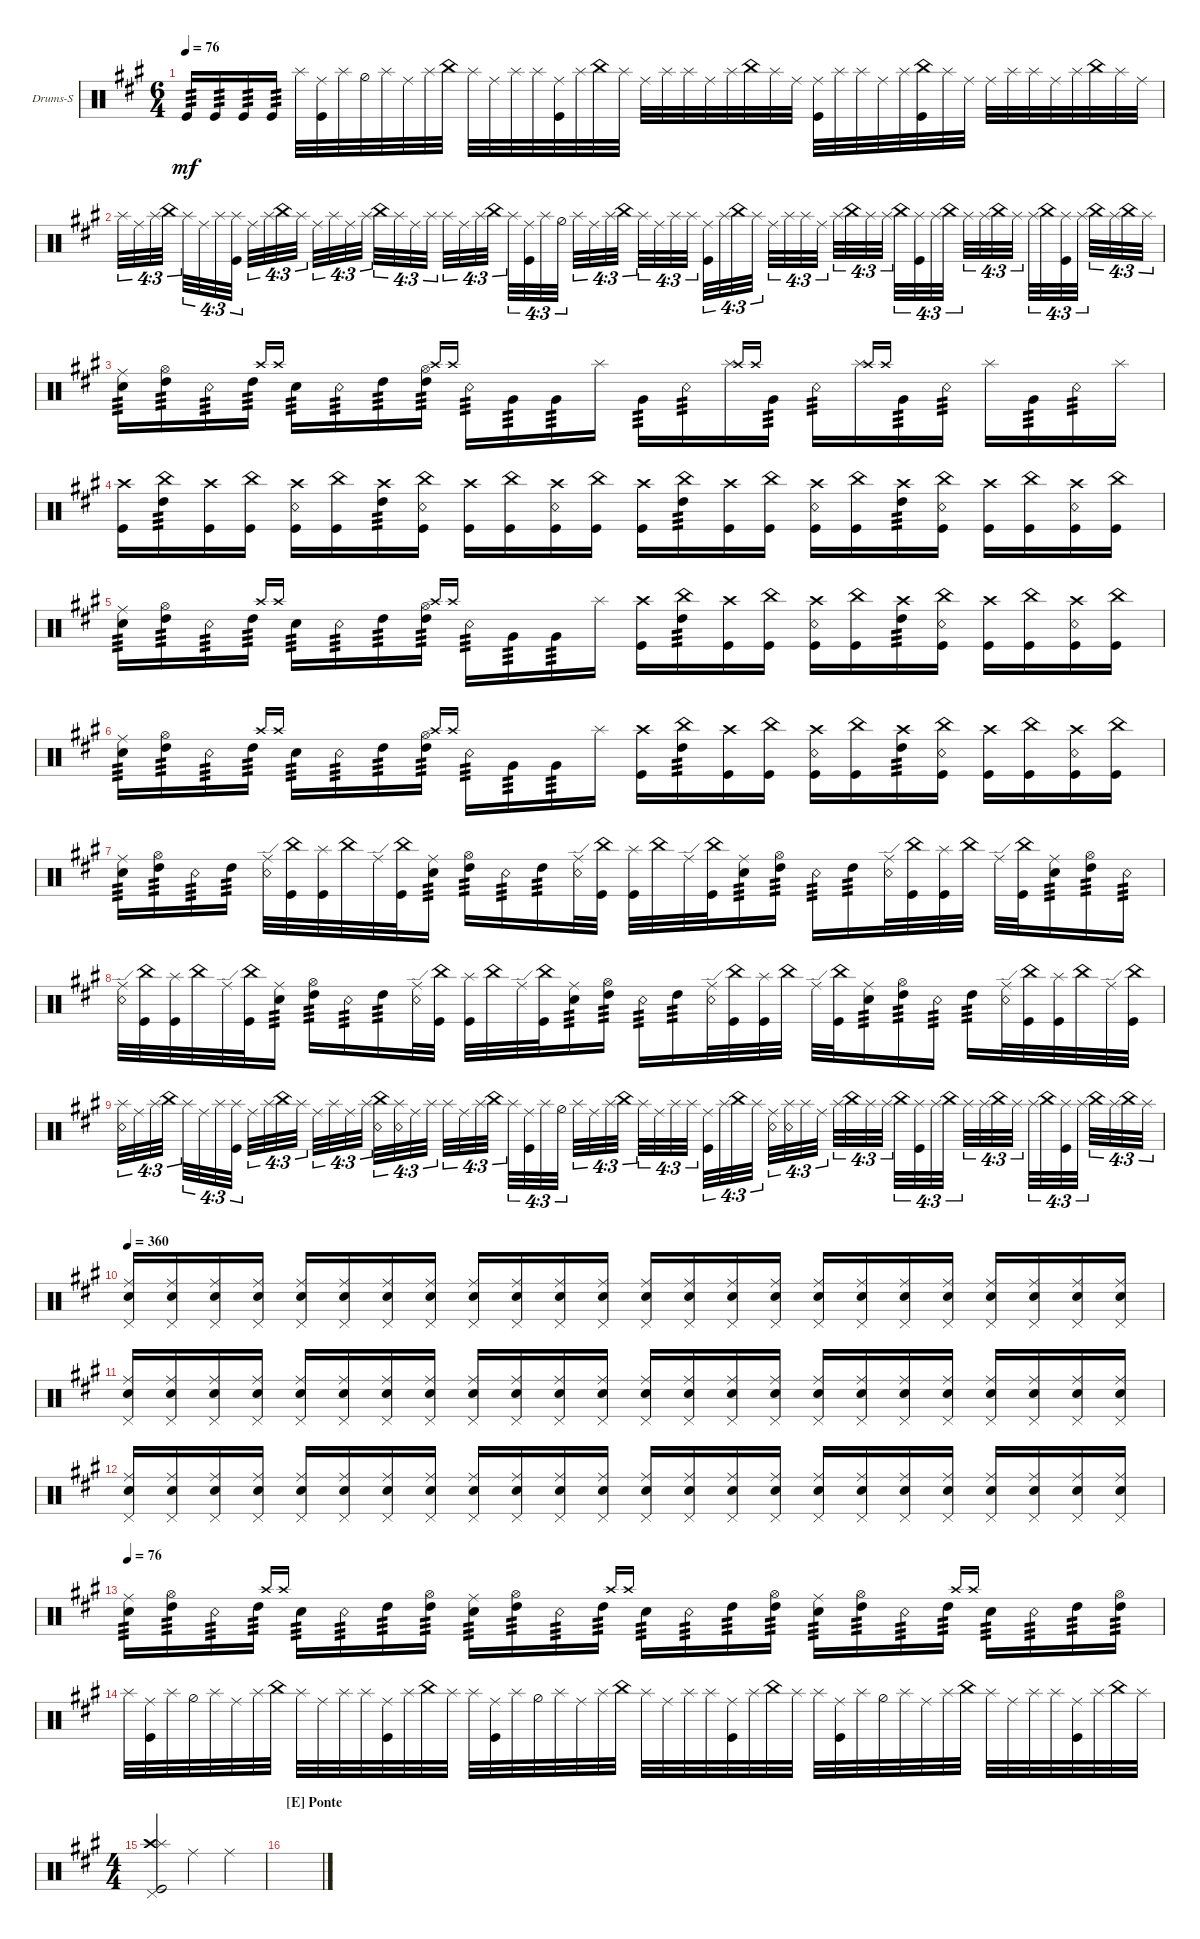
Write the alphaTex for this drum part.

\defaultSystemsLayout 4
\bracketExtendMode groupsimilarinstruments
\firstSystemTrackNameOrientation horizontal
\otherSystemsTrackNameOrientation horizontal
\track ("Drums-Solo" "Drums-S") {instrument percussion}
\staff {score}
\articulation defaults
\ts (6 4)
\tempo 76
\clef neutral
\ks a "Kick (hit)".16{tp 3 dy mf} "Kick (hit)".16{tp 3} "Kick (hit)".16{tp 3} "Kick (hit)".16{tp 3} "Splash (hit)".32
("Ride (middle)" "Kick (hit)").32 "Splash (hit)".32 "Hi-Hat (half)".32 "Splash (hit)".32 "Ride (middle)".32 "Splash (hit)".32 "China (hit)".32 "Splash (hit)".32 "Ride (middle)".32 "Splash (hit)".32 "Splash (hit)".32 ("Ride (middle)" "Kick (hit)").32 "Splash (hit)".32 "China (hit)".32 "Splash (hit)".32 "Ride (middle)".32 "Splash (hit)".32 "Splash (hit)".32 "Ride (middle)".32 "Splash (hit)".32 "China (hit)".32 "Splash (hit)".32 "Ride (middle)".32 ("Ride (middle)" "Kick (hit)").32 "Splash (hit)".32 "Splash (hit)".32 "Ride (middle)".32 "Splash (hit)".32 ("China (hit)" "Kick (hit)").32 "Splash (hit)".32 "Ride (middle)".32 "Ride (middle)".32 "Splash (hit)".32 "Splash (hit)".32 "Ride (middle)".32 "Splash (hit)".32 "China (hit)".32 "Splash (hit)".32 "Ride (middle)".32 |
"Splash (hit)".32{tu (4 3)} "Ride (middle)".32{tu (4 3)} "Splash (hit)".32{tu (4 3)} "China (hit)".32{tu (4 3)} "Splash (hit)".32{tu (4 3)} "Ride (middle)".32{tu (4 3)} "Splash (hit)".32{tu (4 3)} ("Splash (hit)" "Kick (hit)").32{tu (4 3)} "Ride (middle)".32{tu (4 3)} "Splash (hit)".32{tu (4 3)} "China (hit)".32{tu (4 3)} "Splash (hit)".32{tu (4 3)} "Ride (middle)".32{tu (4 3)} "Splash (hit)".32{tu (4 3)} "Ride (middle)".32{tu (4 3)} "Splash (hit)".32{tu (4 3)} "China (hit)".32{tu (4 3)} "Splash (hit)".32{tu (4 3)} "Ride (middle)".32{tu (4 3)} "Splash (hit)".32{tu (4 3)} "Splash (hit)".32{tu (4 3)} "Ride (middle)".32{tu (4 3)} "Splash (hit)".32{tu (4 3)} "China (hit)".32{tu (4 3)} "Splash (hit)".32{tu (4 3)} ("Ride (middle)" "Kick (hit)").32{tu (4 3)} "Splash (hit)".32{tu (4 3)} "Hi-Hat (half)".32{tu (4 3)} "Splash (hit)".32{tu (4 3)} "Ride (middle)".32{tu (4 3)} "Splash (hit)".32{tu (4 3)} "China (hit)".32{tu (4 3)} "Splash (hit)".32{tu (4 3)} "Ride (middle)".32{tu (4 3)} "Splash (hit)".32{tu (4 3)} "Splash (hit)".32{tu (4 3)} ("Ride (middle)" "Kick (hit)").32{tu (4 3)} "Splash (hit)".32{tu (4 3)} "China (hit)".32{tu (4 3)} "Splash (hit)".32{tu (4 3)} "Ride (middle)".32{tu (4 3)} "Splash (hit)".32{tu (4 3)} "Splash (hit)".32{tu (4 3)} "Ride (middle)".32{tu (4 3)} "Splash (hit)".32{tu (4 3)} "China (hit)".32{tu (4 3)} "Splash (hit)".32{tu (4 3)} "Splash (hit)".32{tu (4 3)} "China (hit)".32{tu (4 3)} ("Splash (hit)" "Kick (hit)").32{tu (4 3)} "Splash (hit)".32{tu (4 3)} "China (hit)".32{tu (4 3)} "Splash (hit)".32{tu (4 3)} "Splash (hit)".32{tu (4 3)} "China (hit)".32{tu (4 3)} "Splash (hit)".32{tu (4 3)} "Splash (hit)".32{tu (4 3)} "China (hit)".32{tu (4 3)} ("Splash (hit)" "Kick (hit)").32{tu (4 3)} "Splash (hit)".32{tu (4 3)} "China (hit)".32{tu (4 3)} "Splash (hit)".32{tu (4 3)} "China (hit)".32{tu (4 3)} "Splash (hit)".32{tu (4 3)} |
("Snare (hit) 2" "Ride (middle)").16{tp 3} ("High Tom (hit)" "Hi-Hat (open)").16{tp 3} "Snare (rim shot)".16{tp 3} "High Tom (hit)".16{tp 3} "Crash high (hit)".16{gr onbeat} "Crash high (hit)".16{gr onbeat} "Snare (hit) 2".16{tp 3} "Snare (rim shot)".16{tp 3} "High Tom (hit)".16{tp 3} ("High Tom (hit)" "Hi-Hat (open)").16{tp 3} "Crash high (hit)".16{gr onbeat} "Crash high (hit)".16{gr onbeat} "Snare (rim shot)".16{tp 3} "Very Low Tom (hit)".16{tp 3} "Very Low Tom (hit)".16{tp 3} "Splash (hit)".16 "Very Low Tom (hit)".16{tp 3} "Snare (rim shot)".16{tp 3} "Splash (hit)".16 "Crash high (hit)".16{gr onbeat} "Crash high (hit)".16{gr onbeat} "Very Low Tom (hit)".16{tp 3} "Snare (rim shot)".16{tp 3} "Splash (hit)".16 "Crash high (hit)".16{gr onbeat} "Crash high (hit)".16{gr onbeat} "Very Low Tom (hit)".16{tp 3} "Snare (rim shot)".16{tp 3} "Splash (hit)".16 "Very Low Tom (hit)".16{tp 3} "Snare (rim shot)".16{tp 3} "Splash (hit)".16 |
("Kick (hit)" "Crash high (hit)").16 ("China (hit)" "High Tom (hit)").16{tp 3} ("Kick (hit)" "Crash high (hit)").16 ("Kick (hit)" "China (hit)").16 ("Kick (hit)" "Crash high (hit)" "Snare (rim shot)").16 ("Kick (hit)" "China (hit)").16 ("Crash high (hit)" "High Tom (hit)").16{tp 3} ("Kick (hit)" "China (hit)" "Snare (rim shot)").16 ("Kick (hit)" "Crash high (hit)").16 ("Kick (hit)" "China (hit)").16 ("Kick (hit)" "Crash high (hit)" "Snare (rim shot)").16 ("Kick (hit)" "China (hit)").16 ("Kick (hit)" "Crash high (hit)").16 ("China (hit)" "High Tom (hit)").16{tp 3} ("Kick (hit)" "Crash high (hit)").16 ("Kick (hit)" "China (hit)").16 ("Kick (hit)" "Crash high (hit)" "Snare (rim shot)").16 ("Kick (hit)" "China (hit)").16 ("Crash high (hit)" "High Tom (hit)").16{tp 3} ("Kick (hit)" "China (hit)" "Snare (rim shot)").16 ("Kick (hit)" "Crash high (hit)").16 ("Kick (hit)" "China (hit)").16 ("Kick (hit)" "Crash high (hit)" "Snare (rim shot)").16 ("Kick (hit)" "China (hit)").16 |
("Snare (hit) 2" "Ride (middle)").16{tp 3} ("High Tom (hit)" "Hi-Hat (open)").16{tp 3} "Snare (rim shot)".16{tp 3} "High Tom (hit)".16{tp 3} "Crash high (hit)".16{gr onbeat} "Crash high (hit)".16{gr onbeat} "Snare (hit) 2".16{tp 3} "Snare (rim shot)".16{tp 3} "High Tom (hit)".16{tp 3} ("High Tom (hit)" "Hi-Hat (open)").16{tp 3} "Crash high (hit)".16{gr onbeat} "Crash high (hit)".16{gr onbeat} "Snare (rim shot)".16{tp 3} "Very Low Tom (hit)".16{tp 3} "Very Low Tom (hit)".16{tp 3} "Splash (hit)".16 ("Kick (hit)" "Crash high (hit)").16 ("China (hit)" "High Tom (hit)").16{tp 3} ("Kick (hit)" "Crash high (hit)").16 ("Kick (hit)" "China (hit)").16 ("Kick (hit)" "Crash high (hit)" "Snare (rim shot)").16 ("Kick (hit)" "China (hit)").16 ("Crash high (hit)" "High Tom (hit)").16{tp 3} ("Kick (hit)" "China (hit)" "Snare (rim shot)").16 ("Kick (hit)" "Crash high (hit)").16 ("Kick (hit)" "China (hit)").16 ("Kick (hit)" "Crash high (hit)" "Snare (rim shot)").16 ("Kick (hit)" "China (hit)").16 |
("Snare (hit) 2" "Ride (middle)").16{tp 3} ("High Tom (hit)" "Hi-Hat (open)").16{tp 3} "Snare (rim shot)".16{tp 3} "High Tom (hit)".16{tp 3} "Crash high (hit)".16{gr onbeat} "Crash high (hit)".16{gr onbeat} "Snare (hit) 2".16{tp 3} "Snare (rim shot)".16{tp 3} "High Tom (hit)".16{tp 3} ("High Tom (hit)" "Hi-Hat (open)").16{tp 3} "Crash high (hit)".16{gr onbeat} "Crash high (hit)".16{gr onbeat} "Snare (rim shot)".16{tp 3} "Very Low Tom (hit)".16{tp 3} "Very Low Tom (hit)".16{tp 3} "Splash (hit)".16 ("Kick (hit)" "Crash high (hit)").16 ("China (hit)" "High Tom (hit)").16{tp 3} ("Kick (hit)" "Crash high (hit)").16 ("Kick (hit)" "China (hit)").16 ("Kick (hit)" "Crash high (hit)" "Snare (rim shot)").16 ("Kick (hit)" "China (hit)").16 ("Crash high (hit)" "High Tom (hit)").16{tp 3} ("Kick (hit)" "China (hit)" "Snare (rim shot)").16 ("Kick (hit)" "Crash high (hit)").16 ("Kick (hit)" "China (hit)").16 ("Kick (hit)" "Crash high (hit)" "Snare (rim shot)").16 ("Kick (hit)" "China (hit)").16 |
("Snare (hit) 2" "Ride (middle)").16{tp 3} ("High Tom (hit)" "Hi-Hat (open)").16{tp 3} "Snare (rim shot)".16{tp 3} "High Tom (hit)".16{tp 3} ("Ride (edge)" "Snare (rim shot)").32 ("Kick (hit)" "China (hit)").32 ("Kick (hit)" "Splash (hit)").32 "China (hit)".32 "Ride (edge)".32 ("Kick (hit)" "China (hit)").32 ("Snare (hit) 2" "Ride (middle)").16{tp 3} ("High Tom (hit)" "Hi-Hat (open)").16{tp 3} "Snare (rim shot)".16{tp 3} "High Tom (hit)".16{tp 3} ("Ride (edge)" "Snare (rim shot)").32 ("Kick (hit)" "China (hit)").32 ("Kick (hit)" "Splash (hit)").32 "China (hit)".32 "Ride (edge)".32 ("Kick (hit)" "China (hit)").32 ("Snare (hit) 2" "Ride (middle)").16{tp 3} ("High Tom (hit)" "Hi-Hat (open)").16{tp 3} "Snare (rim shot)".16{tp 3} "High Tom (hit)".16{tp 3} ("Ride (edge)" "Snare (rim shot)").32 ("Kick (hit)" "China (hit)").32 ("Kick (hit)" "Splash (hit)").32 "China (hit)".32 "Ride (edge)".32 ("Kick (hit)" "China (hit)").32 ("Snare (hit) 2" "Ride (middle)").16{tp 3} ("High Tom (hit)" "Hi-Hat (open)").16{tp 3} "Snare (rim shot)".16{tp 3} |
("Ride (edge)" "Snare (rim shot)").32 ("Kick (hit)" "China (hit)").32 ("Kick (hit)" "Splash (hit)").32 "China (hit)".32 "Ride (edge)".32 ("Kick (hit)" "China (hit)").32 ("Snare (hit) 2" "Ride (middle)").16{tp 3} ("High Tom (hit)" "Hi-Hat (open)").16{tp 3} "Snare (rim shot)".16{tp 3} "High Tom (hit)".16{tp 3} ("Ride (edge)" "Snare (rim shot)").32 ("Kick (hit)" "China (hit)").32 ("Kick (hit)" "Splash (hit)").32 "China (hit)".32 "Ride (edge)".32 ("Kick (hit)" "China (hit)").32 ("Snare (hit) 2" "Ride (middle)").16{tp 3} ("High Tom (hit)" "Hi-Hat (open)").16{tp 3} "Snare (rim shot)".16{tp 3} "High Tom (hit)".16{tp 3} ("Ride (edge)" "Snare (rim shot)").32 ("Kick (hit)" "China (hit)").32 ("Kick (hit)" "Splash (hit)").32 "China (hit)".32 "Ride (edge)".32 ("Kick (hit)" "China (hit)").32 ("Snare (hit) 2" "Ride (middle)").16{tp 3} ("High Tom (hit)" "Hi-Hat (open)").16{tp 3} "Snare (rim shot)".16{tp 3} "High Tom (hit)".16{tp 3} ("Ride (edge)" "Snare (rim shot)").32 ("Kick (hit)" "China (hit)").32 ("Kick (hit)" "Splash (hit)").32 "China (hit)".32 "Ride (edge)".32 ("Kick (hit)" "China (hit)").32 |
("Splash (hit)" "Snare (rim shot)").32{tu (4 3)} "Ride (middle)".32{tu (4 3)} "Splash (hit)".32{tu (4 3)} "China (hit)".32{tu (4 3)} "Splash (hit)".32{tu (4 3)} "Ride (middle)".32{tu (4 3)} "Splash (hit)".32{tu (4 3)} ("Splash (hit)" "Kick (hit)").32{tu (4 3)} "Ride (middle)".32{tu (4 3)} "Splash (hit)".32{tu (4 3)} "China (hit)".32{tu (4 3)} "Splash (hit)".32{tu (4 3)} "Ride (middle)".32{tu (4 3)} "Splash (hit)".32{tu (4 3)} "Ride (middle)".32{tu (4 3)} "Splash (hit)".32{tu (4 3)} ("China (hit)" "Snare (rim shot)").32{tu (4 3)} ("Splash (hit)" "Snare (rim shot)").32{tu (4 3)} "Ride (middle)".32{tu (4 3)} "Splash (hit)".32{tu (4 3)} "Splash (hit)".32{tu (4 3)} "Ride (middle)".32{tu (4 3)} "Splash (hit)".32{tu (4 3)} "China (hit)".32{tu (4 3)} "Splash (hit)".32{tu (4 3)} ("Ride (middle)" "Kick (hit)").32{tu (4 3)} "Splash (hit)".32{tu (4 3)} "Hi-Hat (half)".32{tu (4 3)} "Splash (hit)".32{tu (4 3)} "Ride (middle)".32{tu (4 3)} "Splash (hit)".32{tu (4 3)} "China (hit)".32{tu (4 3)} "Splash (hit)".32{tu (4 3)} "Ride (middle)".32{tu (4 3)} "Splash (hit)".32{tu (4 3)} "Splash (hit)".32{tu (4 3)} ("Ride (middle)" "Kick (hit)").32{tu (4 3)} "Splash (hit)".32{tu (4 3)} "China (hit)".32{tu (4 3)} "Splash (hit)".32{tu (4 3)} ("Ride (middle)" "Snare (rim shot)").32{tu (4 3)} ("Splash (hit)" "Snare (rim shot)").32{tu (4 3)} "Splash (hit)".32{tu (4 3)} "Ride (middle)".32{tu (4 3)} "Splash (hit)".32{tu (4 3)} "China (hit)".32{tu (4 3)} "Splash (hit)".32{tu (4 3)} "Splash (hit)".32{tu (4 3)} "China (hit)".32{tu (4 3)} ("Splash (hit)" "Kick (hit)").32{tu (4 3)} "Splash (hit)".32{tu (4 3)} "China (hit)".32{tu (4 3)} "Splash (hit)".32{tu (4 3)} "Splash (hit)".32{tu (4 3)} "China (hit)".32{tu (4 3)} "Splash (hit)".32{tu (4 3)} "Splash (hit)".32{tu (4 3)} "China (hit)".32{tu (4 3)} ("Splash (hit)" "Kick (hit)").32{tu (4 3)} "Splash (hit)".32{tu (4 3)} "China (hit)".32{tu (4 3)} "Splash (hit)".32{tu (4 3)} "China (hit)".32{tu (4 3)} "Splash (hit)".32{tu (4 3)} |
\tempo 360
("Snare (hit) 2" "Pedal Hi-Hat (hit)" "Ride (middle)").16 ("Snare (hit) 2" "Pedal Hi-Hat (hit)" "Ride (middle)").16 ("Snare (hit) 2" "Pedal Hi-Hat (hit)" "Ride (middle)").16 ("Snare (hit) 2" "Pedal Hi-Hat (hit)" "Ride (middle)").16 ("Snare (hit) 2" "Pedal Hi-Hat (hit)" "Ride (middle)").16 ("Snare (hit) 2" "Pedal Hi-Hat (hit)" "Ride (middle)").16 ("Snare (hit) 2" "Pedal Hi-Hat (hit)" "Ride (middle)").16 ("Snare (hit) 2" "Pedal Hi-Hat (hit)" "Ride (middle)").16 ("Snare (hit) 2" "Pedal Hi-Hat (hit)" "Ride (middle)").16 ("Snare (hit) 2" "Pedal Hi-Hat (hit)" "Ride (middle)").16 ("Snare (hit) 2" "Pedal Hi-Hat (hit)" "Ride (middle)").16 ("Snare (hit) 2" "Pedal Hi-Hat (hit)" "Ride (middle)").16 ("Snare (hit) 2" "Pedal Hi-Hat (hit)" "Ride (middle)").16 ("Snare (hit) 2" "Pedal Hi-Hat (hit)" "Ride (middle)").16 ("Snare (hit) 2" "Pedal Hi-Hat (hit)" "Ride (middle)").16 ("Snare (hit) 2" "Pedal Hi-Hat (hit)" "Ride (middle)").16 ("Snare (hit) 2" "Pedal Hi-Hat (hit)" "Ride (middle)").16 ("Snare (hit) 2" "Pedal Hi-Hat (hit)" "Ride (middle)").16 ("Snare (hit) 2" "Pedal Hi-Hat (hit)" "Ride (middle)").16 ("Snare (hit) 2" "Pedal Hi-Hat (hit)" "Ride (middle)").16 ("Snare (hit) 2" "Pedal Hi-Hat (hit)" "Ride (middle)").16 ("Snare (hit) 2" "Pedal Hi-Hat (hit)" "Ride (middle)").16 ("Snare (hit) 2" "Pedal Hi-Hat (hit)" "Ride (middle)").16 ("Snare (hit) 2" "Pedal Hi-Hat (hit)" "Ride (middle)").16 |
("Snare (hit) 2" "Pedal Hi-Hat (hit)" "Ride (middle)").16 ("Snare (hit) 2" "Pedal Hi-Hat (hit)" "Ride (middle)").16 ("Snare (hit) 2" "Pedal Hi-Hat (hit)" "Ride (middle)").16 ("Snare (hit) 2" "Pedal Hi-Hat (hit)" "Ride (middle)").16 ("Snare (hit) 2" "Pedal Hi-Hat (hit)" "Ride (middle)").16 ("Snare (hit) 2" "Pedal Hi-Hat (hit)" "Ride (middle)").16 ("Snare (hit) 2" "Pedal Hi-Hat (hit)" "Ride (middle)").16 ("Snare (hit) 2" "Pedal Hi-Hat (hit)" "Ride (middle)").16 ("Snare (hit) 2" "Pedal Hi-Hat (hit)" "Ride (middle)").16 ("Snare (hit) 2" "Pedal Hi-Hat (hit)" "Ride (middle)").16 ("Snare (hit) 2" "Pedal Hi-Hat (hit)" "Ride (middle)").16 ("Snare (hit) 2" "Pedal Hi-Hat (hit)" "Ride (middle)").16 ("Snare (hit) 2" "Pedal Hi-Hat (hit)" "Ride (middle)").16 ("Snare (hit) 2" "Pedal Hi-Hat (hit)" "Ride (middle)").16 ("Snare (hit) 2" "Pedal Hi-Hat (hit)" "Ride (middle)").16 ("Snare (hit) 2" "Pedal Hi-Hat (hit)" "Ride (middle)").16 ("Snare (hit) 2" "Pedal Hi-Hat (hit)" "Ride (middle)").16 ("Snare (hit) 2" "Pedal Hi-Hat (hit)" "Ride (middle)").16 ("Snare (hit) 2" "Pedal Hi-Hat (hit)" "Ride (middle)").16 ("Snare (hit) 2" "Pedal Hi-Hat (hit)" "Ride (middle)").16 ("Snare (hit) 2" "Pedal Hi-Hat (hit)" "Ride (middle)").16 ("Snare (hit) 2" "Pedal Hi-Hat (hit)" "Ride (middle)").16 ("Snare (hit) 2" "Pedal Hi-Hat (hit)" "Ride (middle)").16 ("Snare (hit) 2" "Pedal Hi-Hat (hit)" "Ride (middle)").16 |
("Snare (hit) 2" "Pedal Hi-Hat (hit)" "Ride (middle)").16 ("Snare (hit) 2" "Pedal Hi-Hat (hit)" "Ride (middle)").16 ("Snare (hit) 2" "Pedal Hi-Hat (hit)" "Ride (middle)").16 ("Snare (hit) 2" "Pedal Hi-Hat (hit)" "Ride (middle)").16 ("Snare (hit) 2" "Pedal Hi-Hat (hit)" "Ride (middle)").16 ("Snare (hit) 2" "Pedal Hi-Hat (hit)" "Ride (middle)").16 ("Snare (hit) 2" "Pedal Hi-Hat (hit)" "Ride (middle)").16 ("Snare (hit) 2" "Pedal Hi-Hat (hit)" "Ride (middle)").16 ("Snare (hit) 2" "Pedal Hi-Hat (hit)" "Ride (middle)").16 ("Snare (hit) 2" "Pedal Hi-Hat (hit)" "Ride (middle)").16 ("Snare (hit) 2" "Pedal Hi-Hat (hit)" "Ride (middle)").16 ("Snare (hit) 2" "Pedal Hi-Hat (hit)" "Ride (middle)").16 ("Snare (hit) 2" "Pedal Hi-Hat (hit)" "Ride (middle)").16 ("Snare (hit) 2" "Pedal Hi-Hat (hit)" "Ride (middle)").16 ("Snare (hit) 2" "Pedal Hi-Hat (hit)" "Ride (middle)").16 ("Snare (hit) 2" "Pedal Hi-Hat (hit)" "Ride (middle)").16 ("Snare (hit) 2" "Pedal Hi-Hat (hit)" "Ride (middle)").16 ("Snare (hit) 2" "Pedal Hi-Hat (hit)" "Ride (middle)").16 ("Snare (hit) 2" "Pedal Hi-Hat (hit)" "Ride (middle)").16 ("Snare (hit) 2" "Pedal Hi-Hat (hit)" "Ride (middle)").16 ("Snare (hit) 2" "Pedal Hi-Hat (hit)" "Ride (middle)").16 ("Snare (hit) 2" "Pedal Hi-Hat (hit)" "Ride (middle)").16 ("Snare (hit) 2" "Pedal Hi-Hat (hit)" "Ride (middle)").16 ("Snare (hit) 2" "Pedal Hi-Hat (hit)" "Ride (middle)").16 |
\tempo 76
("Snare (hit) 2" "Ride (middle)").16{tp 3} ("High Tom (hit)" "Hi-Hat (open)").16{tp 3} "Snare (rim shot)".16{tp 3} "High Tom (hit)".16{tp 3} "Crash high (hit)".16{gr onbeat} "Crash high (hit)".16{gr onbeat} "Snare (hit) 2".16{tp 3} "Snare (rim shot)".16{tp 3} "High Tom (hit)".16{tp 3} ("High Tom (hit)" "Hi-Hat (open)").16{tp 3} ("Snare (hit) 2" "Ride (middle)").16{tp 3} ("High Tom (hit)" "Hi-Hat (open)").16{tp 3} "Snare (rim shot)".16{tp 3} "High Tom (hit)".16{tp 3} "Crash high (hit)".16{gr onbeat} "Crash high (hit)".16{gr onbeat} "Snare (hit) 2".16{tp 3} "Snare (rim shot)".16{tp 3} "High Tom (hit)".16{tp 3} ("High Tom (hit)" "Hi-Hat (open)").16{tp 3} ("Snare (hit) 2" "Ride (middle)").16{tp 3} ("High Tom (hit)" "Hi-Hat (open)").16{tp 3} "Snare (rim shot)".16{tp 3} "High Tom (hit)".16{tp 3} "Crash high (hit)".16{gr onbeat} "Crash high (hit)".16{gr onbeat} "Snare (hit) 2".16{tp 3} "Snare (rim shot)".16{tp 3} "High Tom (hit)".16{tp 3} ("High Tom (hit)" "Hi-Hat (open)").16{tp 3} |
"Splash (hit)".32 ("Ride (middle)" "Kick (hit)").32 "Splash (hit)".32 "Hi-Hat (half)".32 "Splash (hit)".32 "Ride (middle)".32 "Splash (hit)".32 "China (hit)".32 "Splash (hit)".32 "Ride (middle)".32 "Splash (hit)".32 "Splash (hit)".32 ("Ride (middle)" "Kick (hit)").32 "Splash (hit)".32 "China (hit)".32 "Splash (hit)".32 "Splash (hit)".32 ("Ride (middle)" "Kick (hit)").32 "Splash (hit)".32 "Hi-Hat (half)".32 "Splash (hit)".32 "Ride (middle)".32 "Splash (hit)".32 "China (hit)".32 "Splash (hit)".32 "Ride (middle)".32 "Splash (hit)".32 "Splash (hit)".32 ("Ride (middle)" "Kick (hit)").32 "Splash (hit)".32 "China (hit)".32 "Splash (hit)".32 "Splash (hit)".32 ("Ride (middle)" "Kick (hit)").32 "Splash (hit)".32 "Hi-Hat (half)".32 "Splash (hit)".32 "Ride (middle)".32 "Splash (hit)".32 "China (hit)".32 "Splash (hit)".32 "Ride (middle)".32 "Splash (hit)".32 "Splash (hit)".32 ("Ride (middle)" "Kick (hit)").32 "Splash (hit)".32 "China (hit)".32 "Splash (hit)".32 |
\ts (4 4)
("Crash high (hit)" "Splash (hit)" "Pedal Hi-Hat (hit)" "Kick (hit)").2 "Ride (middle)".4 "Ride (middle)".4 |
\section ("E" "Ponte")
